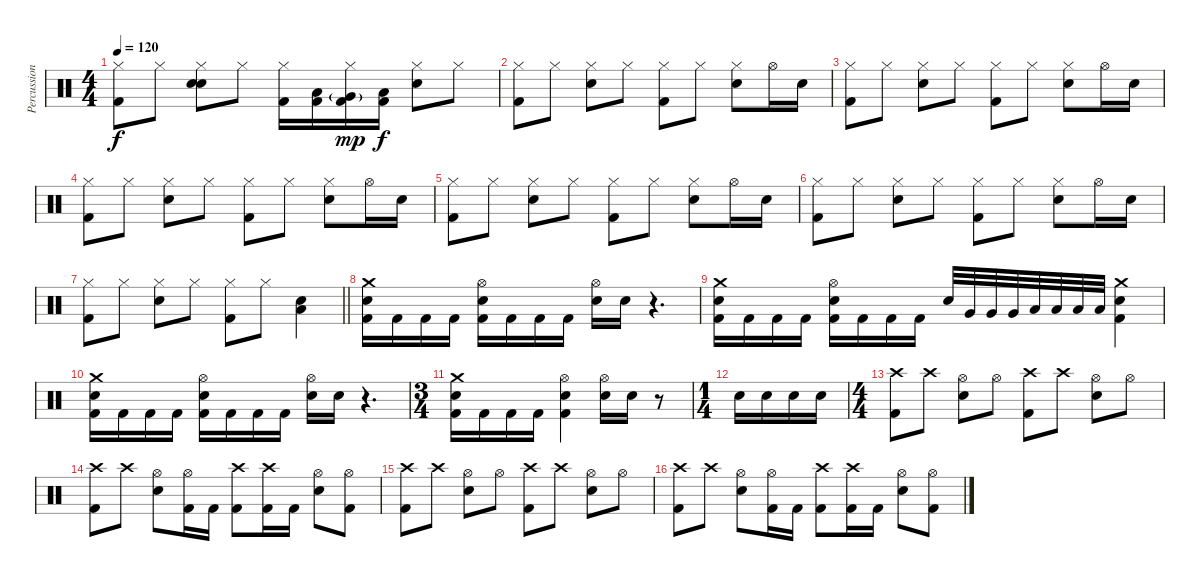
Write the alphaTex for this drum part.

\track ("Percussion" "Percussion") {instrument percussion}
\staff {score}
\articulation defaults
\ts (4 4)
\tempo 120
\clef neutral
\ks c
("Hi-Hat (closed)" "Kick (hit) 2").8{dy f} "Hi-Hat (closed)".8 ("Electric Snare (hit)" "Hi-Hat (closed)" "Electric Snare (hit)").8 "Hi-Hat (closed)".8 ("Hi-Hat (closed)" "Kick (hit) 2").16 ("Low Floor Tom (hit)" "Kick (hit) 2").16 ("Hi-Hat (closed)" "Very Low Tom (hit)"{g} "Kick (hit) 2").16{dy mp} ("Low Floor Tom (hit)" "Kick (hit) 2").16{dy f} ("Hi-Hat (closed)" "Electric Snare (hit)").8 "Hi-Hat (closed)".8 |
("Hi-Hat (closed)" "Kick (hit) 2").8 "Hi-Hat (closed)".8 ("Hi-Hat (closed)" "Electric Snare (hit)").8 "Hi-Hat (closed)".8 ("Hi-Hat (closed)" "Kick (hit) 2").8 "Hi-Hat (closed)".8 ("Hi-Hat (closed)" "Electric Snare (hit)").8 "Hi-Hat (open)".16 "Electric Snare (hit)".16 |
("Hi-Hat (closed)" "Kick (hit) 2").8 "Hi-Hat (closed)".8 ("Hi-Hat (closed)" "Electric Snare (hit)").8 "Hi-Hat (closed)".8 ("Hi-Hat (closed)" "Kick (hit) 2").8 "Hi-Hat (closed)".8 ("Hi-Hat (closed)" "Electric Snare (hit)").8 "Hi-Hat (open)".16 "Electric Snare (hit)".16 |
("Hi-Hat (closed)" "Kick (hit) 2").8 "Hi-Hat (closed)".8 ("Hi-Hat (closed)" "Electric Snare (hit)").8 "Hi-Hat (closed)".8 ("Hi-Hat (closed)" "Kick (hit) 2").8 "Hi-Hat (closed)".8 ("Hi-Hat (closed)" "Electric Snare (hit)").8 "Hi-Hat (open)".16 "Electric Snare (hit)".16 |
("Hi-Hat (closed)" "Kick (hit) 2").8 "Hi-Hat (closed)".8 ("Hi-Hat (closed)" "Electric Snare (hit)").8 "Hi-Hat (closed)".8 ("Hi-Hat (closed)" "Kick (hit) 2").8 "Hi-Hat (closed)".8 ("Hi-Hat (closed)" "Electric Snare (hit)").8 "Hi-Hat (open)".16 "Electric Snare (hit)".16 |
("Hi-Hat (closed)" "Kick (hit) 2").8 "Hi-Hat (closed)".8 ("Hi-Hat (closed)" "Electric Snare (hit)").8 "Hi-Hat (closed)".8 ("Hi-Hat (closed)" "Kick (hit) 2").8 "Hi-Hat (closed)".8 ("Hi-Hat (closed)" "Electric Snare (hit)").8 "Hi-Hat (open)".16 "Electric Snare (hit)".16 |
\barLineRight lightlight
("Hi-Hat (closed)" "Kick (hit) 2").8 "Hi-Hat (closed)".8 ("Hi-Hat (closed)" "Electric Snare (hit)").8 "Hi-Hat (closed)".8 ("Hi-Hat (closed)" "Kick (hit) 2").8 "Hi-Hat (closed)".8 ("Low Floor Tom (hit)" "Electric Snare (hit)").4 |
("Crash medium (hit)" "Electric Snare (hit)" "Kick (hit) 2").16 "Kick (hit) 2".16 "Kick (hit) 2".16 "Kick (hit) 2".16 ("Hi-Hat (open)" "Electric Snare (hit)" "Kick (hit) 2").16 "Kick (hit) 2".16 "Kick (hit) 2".16 "Kick (hit) 2".16 ("Hi-Hat (open)" "Electric Snare (hit)").16 "Electric Snare (hit)".16 r.4{d} |
("Crash medium (hit)" "Electric Snare (hit)" "Kick (hit) 2").16 "Kick (hit) 2".16 "Kick (hit) 2".16 "Kick (hit) 2".16 ("Hi-Hat (open)" "Electric Snare (hit)" "Kick (hit) 2").16 "Kick (hit) 2".16 "Kick (hit) 2".16 "Kick (hit) 2".16 "Electric Snare (hit)".32 "Very Low Tom (hit)".32 "Very Low Tom (hit)".32 "Very Low Tom (hit)".32 "Low Floor Tom (hit)".32 "Low Floor Tom (hit)".32 "Low Floor Tom (hit)".32 "Low Floor Tom (hit)".32 ("Crash medium (hit)" "Electric Snare (hit)" "Kick (hit) 2").4 |
("Crash medium (hit)" "Electric Snare (hit)" "Kick (hit) 2").16 "Kick (hit) 2".16 "Kick (hit) 2".16 "Kick (hit) 2".16 ("Hi-Hat (open)" "Electric Snare (hit)" "Kick (hit) 2").16 "Kick (hit) 2".16 "Kick (hit) 2".16 "Kick (hit) 2".16 ("Hi-Hat (open)" "Electric Snare (hit)").16 "Electric Snare (hit)".16 r.4{d} |
\ts (3 4)
("Crash medium (hit)" "Electric Snare (hit)" "Kick (hit) 2").16 "Kick (hit) 2".16 "Kick (hit) 2".16 "Kick (hit) 2".16 ("Hi-Hat (open)" "Electric Snare (hit)" "Kick (hit) 2").4 ("Hi-Hat (open)" "Electric Snare (hit)").16 "Electric Snare (hit)".16 r.8 |
\ts (1 4)
"Electric Snare (hit)".16 "Electric Snare (hit)".16 "Electric Snare (hit)".16 "Electric Snare (hit)".16 |
\ts (4 4)
("Crash high (hit)" "Kick (hit) 2").8 "Crash high (hit)".8 ("Hi-Hat (open)" "Electric Snare (hit)").8 "Hi-Hat (open)".8 ("Crash high (hit)" "Kick (hit) 2").8 "Crash high (hit)".8 ("Hi-Hat (open)" "Electric Snare (hit)").8 "Hi-Hat (open)".8 |
("Crash high (hit)" "Kick (hit) 2").8 "Crash high (hit)".8 ("Hi-Hat (open)" "Electric Snare (hit)").8 ("Hi-Hat (open)" "Kick (hit) 2").16 "Kick (hit) 2".16 ("Crash high (hit)" "Kick (hit) 2").8 ("Crash high (hit)" "Kick (hit) 2").16 "Kick (hit) 2".16 ("Hi-Hat (open)" "Electric Snare (hit)").8 ("Hi-Hat (open)" "Kick (hit) 2").8 |
("Crash high (hit)" "Kick (hit) 2").8 "Crash high (hit)".8 ("Hi-Hat (open)" "Electric Snare (hit)").8 "Hi-Hat (open)".8 ("Crash high (hit)" "Kick (hit) 2").8 "Crash high (hit)".8 ("Hi-Hat (open)" "Electric Snare (hit)").8 "Hi-Hat (open)".8 |
("Crash high (hit)" "Kick (hit) 2").8 "Crash high (hit)".8 ("Hi-Hat (open)" "Electric Snare (hit)").8 ("Hi-Hat (open)" "Kick (hit) 2").16 "Kick (hit) 2".16 ("Crash high (hit)" "Kick (hit) 2").8 ("Crash high (hit)" "Kick (hit) 2").16 "Kick (hit) 2".16 ("Hi-Hat (open)" "Electric Snare (hit)").8 ("Hi-Hat (open)" "Kick (hit) 2").8
